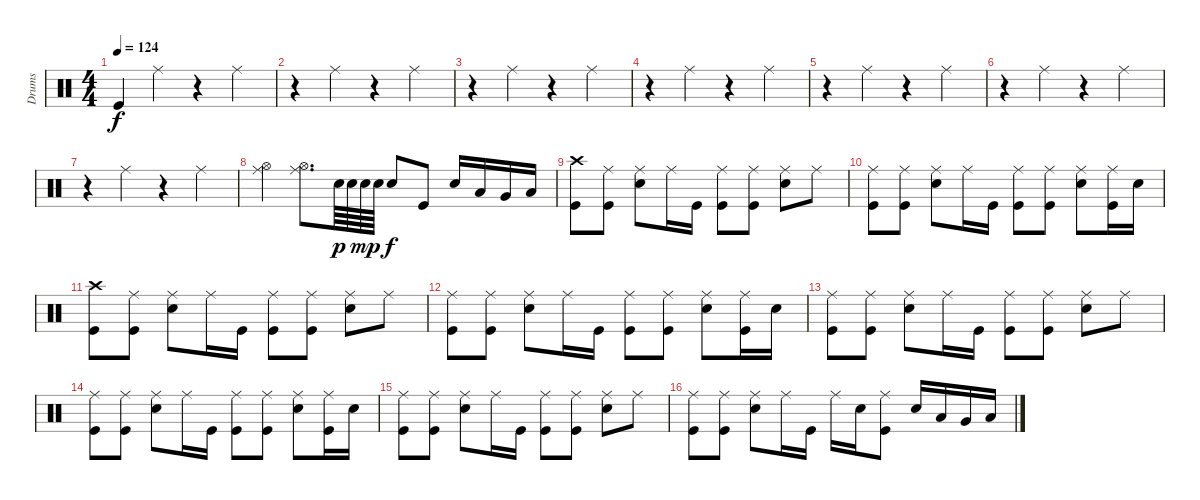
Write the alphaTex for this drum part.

\track ("Drums" "Drums") {instrument percussion}
\staff {score}
\articulation defaults
\ts (4 4)
\tempo 124
\clef neutral
\ks c "Kick (hit)".4{dy f} "Ride (middle)".4
r.4 "Ride (middle)".4 |
r.4 "Ride (middle)".4 r.4 "Ride (middle)".4 |
r.4 "Ride (middle)".4 r.4 "Ride (middle)".4 |
r.4 "Ride (middle)".4 r.4 "Ride (middle)".4 |
r.4 "Ride (middle)".4 r.4 "Ride (middle)".4 |
r.4 "Ride (middle)".4 r.4 "Ride (middle)".4 |
r.4 "Ride (middle)".4 r.4 "Ride (middle)".4 |
("Ride (middle)" "Hi-Hat (open)").4 ("Ride (middle)" "Hi-Hat (open)").8{d} "Snare (hit) 2".64{dy p} "Snare (hit) 2".64 "Snare (hit) 2".64{dy mp} "Snare (hit) 2".64 "Electric Snare (hit)".8{dy f} "Kick (hit)".8 "Electric Snare (hit)".16 "Low Tom (hit)".16 "Very Low Tom (hit)".16 "Low Floor Tom (hit)".16 |
("Crash high (hit)" "Kick (hit)").8 ("Ride (middle)" "Kick (hit)").8 ("Ride (middle)" "Electric Snare (hit)").8 "Ride (middle)".16 "Kick (hit)".16 ("Ride (middle)" "Kick (hit)").8 ("Ride (middle)" "Kick (hit)").8 ("Ride (middle)" "Electric Snare (hit)").8 "Ride (middle)".8 |
("Ride (middle)" "Kick (hit)").8 ("Ride (middle)" "Kick (hit)").8 ("Ride (middle)" "Electric Snare (hit)").8 "Ride (middle)".16 "Kick (hit)".16 ("Ride (middle)" "Kick (hit)").8 ("Ride (middle)" "Kick (hit)").8 ("Ride (middle)" "Electric Snare (hit)").8 ("Ride (middle)" "Kick (hit)").16 "Electric Snare (hit)".16 |
("Crash high (hit)" "Kick (hit)").8 ("Ride (middle)" "Kick (hit)").8 ("Ride (middle)" "Electric Snare (hit)").8 "Ride (middle)".16 "Kick (hit)".16 ("Ride (middle)" "Kick (hit)").8 ("Ride (middle)" "Kick (hit)").8 ("Ride (middle)" "Electric Snare (hit)").8 "Ride (middle)".8 |
("Ride (middle)" "Kick (hit)").8 ("Ride (middle)" "Kick (hit)").8 ("Ride (middle)" "Electric Snare (hit)").8 "Ride (middle)".16 "Kick (hit)".16 ("Ride (middle)" "Kick (hit)").8 ("Ride (middle)" "Kick (hit)").8 ("Ride (middle)" "Electric Snare (hit)").8 ("Ride (middle)" "Kick (hit)").16 "Electric Snare (hit)".16 |
("Ride (middle)" "Kick (hit)").8 ("Ride (middle)" "Kick (hit)").8 ("Ride (middle)" "Electric Snare (hit)").8 "Ride (middle)".16 "Kick (hit)".16 ("Ride (middle)" "Kick (hit)").8 ("Ride (middle)" "Kick (hit)").8 ("Ride (middle)" "Electric Snare (hit)").8 "Ride (middle)".8 |
("Ride (middle)" "Kick (hit)").8 ("Ride (middle)" "Kick (hit)").8 ("Ride (middle)" "Electric Snare (hit)").8 "Ride (middle)".16 "Kick (hit)".16 ("Ride (middle)" "Kick (hit)").8 ("Ride (middle)" "Kick (hit)").8 ("Ride (middle)" "Electric Snare (hit)").8 ("Ride (middle)" "Kick (hit)").16 "Electric Snare (hit)".16 |
("Ride (middle)" "Kick (hit)").8 ("Ride (middle)" "Kick (hit)").8 ("Ride (middle)" "Electric Snare (hit)").8 "Ride (middle)".16 "Kick (hit)".16 ("Ride (middle)" "Kick (hit)").8 ("Ride (middle)" "Kick (hit)").8 ("Ride (middle)" "Electric Snare (hit)").8 "Ride (middle)".8 |
("Ride (middle)" "Kick (hit)").8 ("Ride (middle)" "Kick (hit)").8 ("Ride (middle)" "Electric Snare (hit)").8 "Ride (middle)".16 "Kick (hit)".16 "Ride (middle)".16 "Electric Snare (hit)".16 ("Ride (middle)" "Kick (hit)").8 "Electric Snare (hit)".16 "Low Tom (hit)".16 "Very Low Tom (hit)".16 "Low Floor Tom (hit)".16
